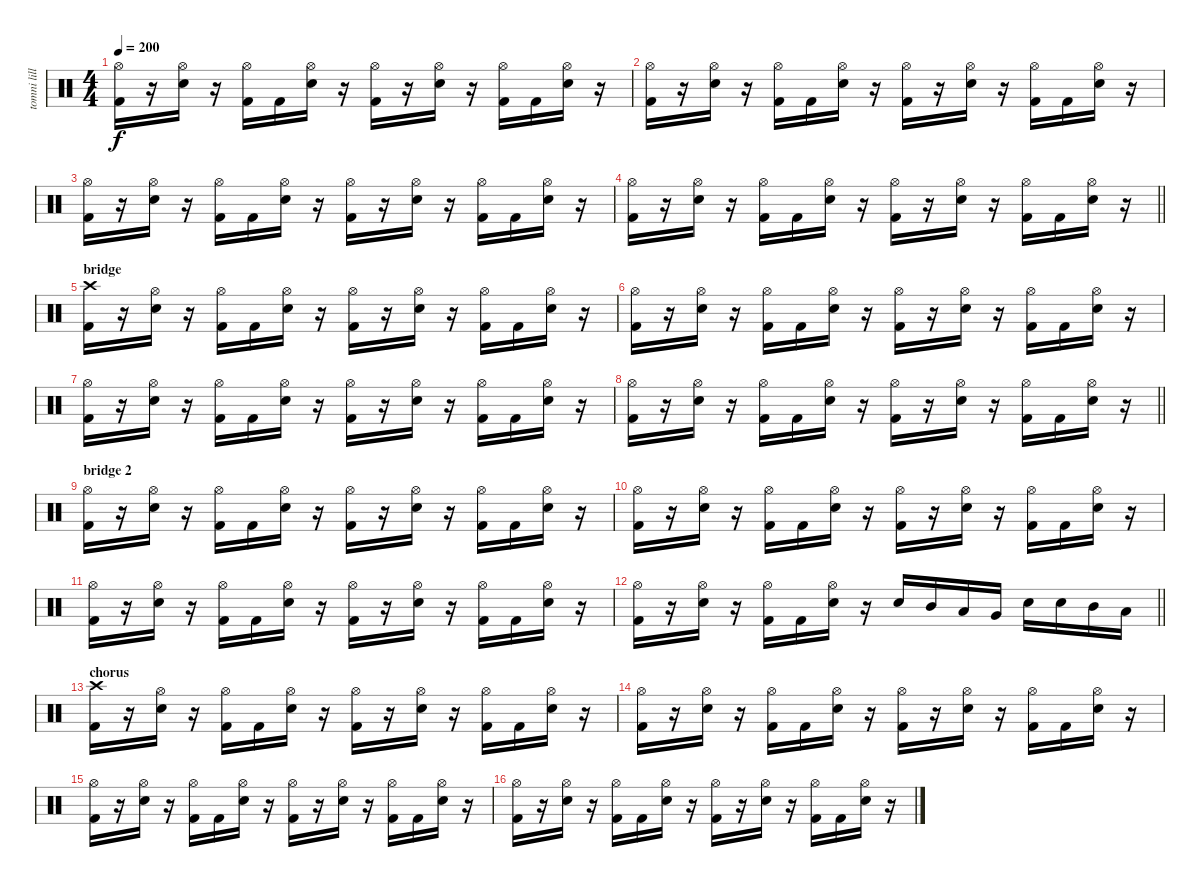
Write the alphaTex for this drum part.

\track ("tomni lillmann" "tomni lill") {instrument percussion}
\staff {score}
\articulation defaults
\ts (4 4)
\tempo 200
\clef neutral
\ks c
("Hi-Hat (open)" "Kick (hit) 2").16{dy f} r.16 ("Hi-Hat (open)" "Snare (hit) 2").16 r.16 ("Hi-Hat (open)" "Kick (hit) 2").16 "Kick (hit) 2".16 ("Hi-Hat (open)" "Snare (hit) 2").16 r.16 ("Hi-Hat (open)" "Kick (hit) 2").16 r.16 ("Hi-Hat (open)" "Snare (hit) 2").16 r.16 ("Hi-Hat (open)" "Kick (hit) 2").16 "Kick (hit) 2".16 ("Hi-Hat (open)" "Snare (hit) 2").16 r.16 |
("Hi-Hat (open)" "Kick (hit) 2").16 r.16 ("Hi-Hat (open)" "Snare (hit) 2").16 r.16 ("Hi-Hat (open)" "Kick (hit) 2").16 "Kick (hit) 2".16 ("Hi-Hat (open)" "Snare (hit) 2").16 r.16 ("Hi-Hat (open)" "Kick (hit) 2").16 r.16 ("Hi-Hat (open)" "Snare (hit) 2").16 r.16 ("Hi-Hat (open)" "Kick (hit) 2").16 "Kick (hit) 2".16 ("Hi-Hat (open)" "Snare (hit) 2").16 r.16 |
("Hi-Hat (open)" "Kick (hit) 2").16 r.16 ("Hi-Hat (open)" "Snare (hit) 2").16 r.16 ("Hi-Hat (open)" "Kick (hit) 2").16 "Kick (hit) 2".16 ("Hi-Hat (open)" "Snare (hit) 2").16 r.16 ("Hi-Hat (open)" "Kick (hit) 2").16 r.16 ("Hi-Hat (open)" "Snare (hit) 2").16 r.16 ("Hi-Hat (open)" "Kick (hit) 2").16 "Kick (hit) 2".16 ("Hi-Hat (open)" "Snare (hit) 2").16 r.16 |
\barLineRight lightlight
("Hi-Hat (open)" "Kick (hit) 2").16 r.16 ("Hi-Hat (open)" "Snare (hit) 2").16 r.16 ("Hi-Hat (open)" "Kick (hit) 2").16 "Kick (hit) 2".16 ("Hi-Hat (open)" "Snare (hit) 2").16 r.16 ("Hi-Hat (open)" "Kick (hit) 2").16 r.16 ("Hi-Hat (open)" "Snare (hit) 2").16 r.16 ("Hi-Hat (open)" "Kick (hit) 2").16 "Kick (hit) 2".16 ("Hi-Hat (open)" "Snare (hit) 2").16 r.16 |
\section ("" "bridge")
("Crash high (hit)" "Kick (hit) 2").16 r.16 ("Hi-Hat (open)" "Snare (hit) 2").16 r.16 ("Hi-Hat (open)" "Kick (hit) 2").16 "Kick (hit) 2".16 ("Hi-Hat (open)" "Snare (hit) 2").16 r.16 ("Hi-Hat (open)" "Kick (hit) 2").16 r.16 ("Hi-Hat (open)" "Snare (hit) 2").16 r.16 ("Hi-Hat (open)" "Kick (hit) 2").16 "Kick (hit) 2".16 ("Hi-Hat (open)" "Snare (hit) 2").16 r.16 |
("Hi-Hat (open)" "Kick (hit) 2").16 r.16 ("Hi-Hat (open)" "Snare (hit) 2").16 r.16 ("Hi-Hat (open)" "Kick (hit) 2").16 "Kick (hit) 2".16 ("Hi-Hat (open)" "Snare (hit) 2").16 r.16 ("Hi-Hat (open)" "Kick (hit) 2").16 r.16 ("Hi-Hat (open)" "Snare (hit) 2").16 r.16 ("Hi-Hat (open)" "Kick (hit) 2").16 "Kick (hit) 2".16 ("Hi-Hat (open)" "Snare (hit) 2").16 r.16 |
("Hi-Hat (open)" "Kick (hit) 2").16 r.16 ("Hi-Hat (open)" "Snare (hit) 2").16 r.16 ("Hi-Hat (open)" "Kick (hit) 2").16 "Kick (hit) 2".16 ("Hi-Hat (open)" "Snare (hit) 2").16 r.16 ("Hi-Hat (open)" "Kick (hit) 2").16 r.16 ("Hi-Hat (open)" "Snare (hit) 2").16 r.16 ("Hi-Hat (open)" "Kick (hit) 2").16 "Kick (hit) 2".16 ("Hi-Hat (open)" "Snare (hit) 2").16 r.16 |
\barLineRight lightlight
("Hi-Hat (open)" "Kick (hit) 2").16 r.16 ("Hi-Hat (open)" "Snare (hit) 2").16 r.16 ("Hi-Hat (open)" "Kick (hit) 2").16 "Kick (hit) 2".16 ("Hi-Hat (open)" "Snare (hit) 2").16 r.16 ("Hi-Hat (open)" "Kick (hit) 2").16 r.16 ("Hi-Hat (open)" "Snare (hit) 2").16 r.16 ("Hi-Hat (open)" "Kick (hit) 2").16 "Kick (hit) 2".16 ("Hi-Hat (open)" "Snare (hit) 2").16 r.16 |
\section ("" "bridge 2")
("Hi-Hat (open)" "Kick (hit) 2").16 r.16 ("Hi-Hat (open)" "Snare (hit) 2").16 r.16 ("Hi-Hat (open)" "Kick (hit) 2").16 "Kick (hit) 2".16 ("Hi-Hat (open)" "Snare (hit) 2").16 r.16 ("Hi-Hat (open)" "Kick (hit) 2").16 r.16 ("Hi-Hat (open)" "Snare (hit) 2").16 r.16 ("Hi-Hat (open)" "Kick (hit) 2").16 "Kick (hit) 2".16 ("Hi-Hat (open)" "Snare (hit) 2").16 r.16 |
("Hi-Hat (open)" "Kick (hit) 2").16 r.16 ("Hi-Hat (open)" "Snare (hit) 2").16 r.16 ("Hi-Hat (open)" "Kick (hit) 2").16 "Kick (hit) 2".16 ("Hi-Hat (open)" "Snare (hit) 2").16 r.16 ("Hi-Hat (open)" "Kick (hit) 2").16 r.16 ("Hi-Hat (open)" "Snare (hit) 2").16 r.16 ("Hi-Hat (open)" "Kick (hit) 2").16 "Kick (hit) 2".16 ("Hi-Hat (open)" "Snare (hit) 2").16 r.16 |
("Hi-Hat (open)" "Kick (hit) 2").16 r.16 ("Hi-Hat (open)" "Snare (hit) 2").16 r.16 ("Hi-Hat (open)" "Kick (hit) 2").16 "Kick (hit) 2".16 ("Hi-Hat (open)" "Snare (hit) 2").16 r.16 ("Hi-Hat (open)" "Kick (hit) 2").16 r.16 ("Hi-Hat (open)" "Snare (hit) 2").16 r.16 ("Hi-Hat (open)" "Kick (hit) 2").16 "Kick (hit) 2".16 ("Hi-Hat (open)" "Snare (hit) 2").16 r.16 |
\barLineRight lightlight
("Hi-Hat (open)" "Kick (hit) 2").16 r.16 ("Hi-Hat (open)" "Snare (hit) 2").16 r.16 ("Hi-Hat (open)" "Kick (hit) 2").16 "Kick (hit) 2".16 ("Hi-Hat (open)" "Snare (hit) 2").16 r.16 "Snare (hit) 2".16 "Mid Tom (hit)".16 "Low Tom (hit)".16 "Very Low Tom (hit)".16 "Snare (hit) 2".16 "Snare (hit) 2".16 "Mid Tom (hit)".16 "Low Tom (hit)".16 |
\section ("" "chorus")
("Crash high (hit)" "Kick (hit) 2").16 r.16 ("Hi-Hat (open)" "Snare (hit) 2").16 r.16 ("Hi-Hat (open)" "Kick (hit) 2").16 "Kick (hit) 2".16 ("Hi-Hat (open)" "Snare (hit) 2").16 r.16 ("Hi-Hat (open)" "Kick (hit) 2").16 r.16 ("Hi-Hat (open)" "Snare (hit) 2").16 r.16 ("Hi-Hat (open)" "Kick (hit) 2").16 "Kick (hit) 2".16 ("Hi-Hat (open)" "Snare (hit) 2").16 r.16 |
("Hi-Hat (open)" "Kick (hit) 2").16 r.16 ("Hi-Hat (open)" "Snare (hit) 2").16 r.16 ("Hi-Hat (open)" "Kick (hit) 2").16 "Kick (hit) 2".16 ("Hi-Hat (open)" "Snare (hit) 2").16 r.16 ("Hi-Hat (open)" "Kick (hit) 2").16 r.16 ("Hi-Hat (open)" "Snare (hit) 2").16 r.16 ("Hi-Hat (open)" "Kick (hit) 2").16 "Kick (hit) 2".16 ("Hi-Hat (open)" "Snare (hit) 2").16 r.16 |
("Hi-Hat (open)" "Kick (hit) 2").16 r.16 ("Hi-Hat (open)" "Snare (hit) 2").16 r.16 ("Hi-Hat (open)" "Kick (hit) 2").16 "Kick (hit) 2".16 ("Hi-Hat (open)" "Snare (hit) 2").16 r.16 ("Hi-Hat (open)" "Kick (hit) 2").16 r.16 ("Hi-Hat (open)" "Snare (hit) 2").16 r.16 ("Hi-Hat (open)" "Kick (hit) 2").16 "Kick (hit) 2".16 ("Hi-Hat (open)" "Snare (hit) 2").16 r.16 |
("Hi-Hat (open)" "Kick (hit) 2").16 r.16 ("Hi-Hat (open)" "Snare (hit) 2").16 r.16 ("Hi-Hat (open)" "Kick (hit) 2").16 "Kick (hit) 2".16 ("Hi-Hat (open)" "Snare (hit) 2").16 r.16 ("Hi-Hat (open)" "Kick (hit) 2").16 r.16 ("Hi-Hat (open)" "Snare (hit) 2").16 r.16 ("Hi-Hat (open)" "Kick (hit) 2").16 "Kick (hit) 2".16 ("Hi-Hat (open)" "Snare (hit) 2").16 r.16
